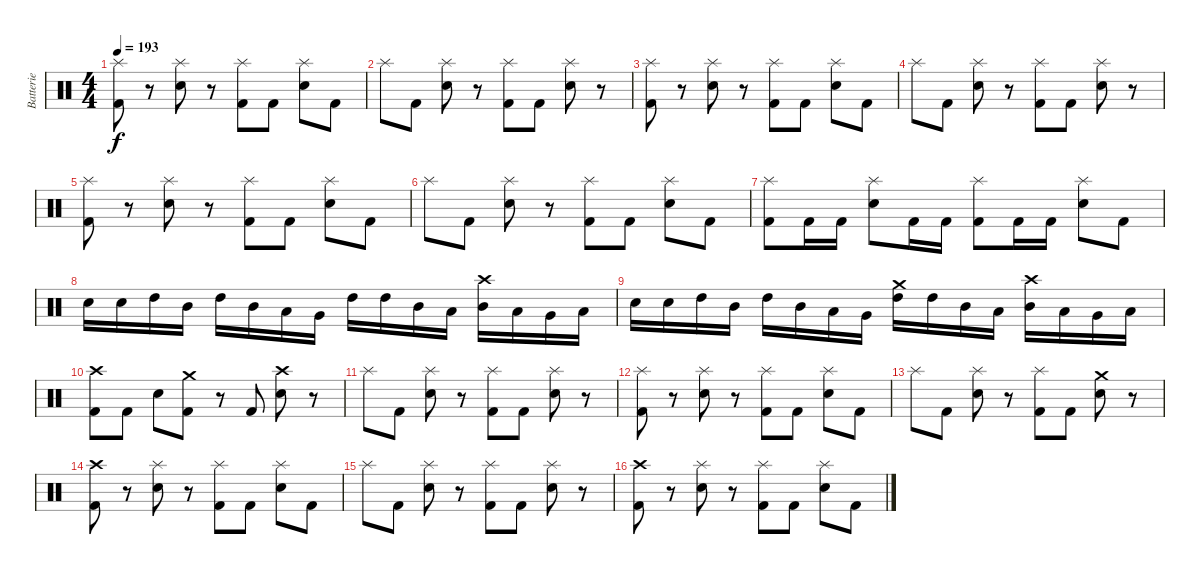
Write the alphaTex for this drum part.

\track ("Batterie" "Batterie") {instrument percussion}
\staff {score}
\articulation defaults
\ts (4 4)
\tempo 193
\clef neutral
\ks c
("Kick (hit) 2" "Splash (hit)").8{dy f} r.8 ("Electric Snare (hit)" "Splash (hit)").8 r.8 ("Kick (hit) 2" "Splash (hit)").8 "Kick (hit) 2".8 ("Electric Snare (hit)" "Splash (hit)").8 "Kick (hit) 2".8 |
"Splash (hit)".8 "Kick (hit) 2".8 ("Electric Snare (hit)" "Splash (hit)").8 r.8 ("Kick (hit) 2" "Splash (hit)").8 "Kick (hit) 2".8 ("Electric Snare (hit)" "Splash (hit)").8 r.8 |
("Kick (hit) 2" "Splash (hit)").8 r.8 ("Electric Snare (hit)" "Splash (hit)").8 r.8 ("Kick (hit) 2" "Splash (hit)").8 "Kick (hit) 2".8 ("Electric Snare (hit)" "Splash (hit)").8 "Kick (hit) 2".8 |
"Splash (hit)".8 "Kick (hit) 2".8 ("Electric Snare (hit)" "Splash (hit)").8 r.8 ("Kick (hit) 2" "Splash (hit)").8 "Kick (hit) 2".8 ("Electric Snare (hit)" "Splash (hit)").8 r.8 |
("Kick (hit) 2" "Splash (hit)").8 r.8 ("Electric Snare (hit)" "Splash (hit)").8 r.8 ("Kick (hit) 2" "Splash (hit)").8 "Kick (hit) 2".8 ("Electric Snare (hit)" "Splash (hit)").8 "Kick (hit) 2".8 |
"Splash (hit)".8 "Kick (hit) 2".8 ("Electric Snare (hit)" "Splash (hit)").8 r.8 ("Kick (hit) 2" "Splash (hit)").8 "Kick (hit) 2".8 ("Electric Snare (hit)" "Splash (hit)").8 "Kick (hit) 2".8 |
("Kick (hit) 2" "Splash (hit)").8 "Kick (hit) 2".16 "Kick (hit) 2".16 ("Electric Snare (hit)" "Splash (hit)").8 "Kick (hit) 2".16 "Kick (hit) 2".16 ("Kick (hit) 2" "Splash (hit)").8 "Kick (hit) 2".16 "Kick (hit) 2".16 ("Electric Snare (hit)" "Splash (hit)").8 "Kick (hit) 2".8 |
"Electric Snare (hit)".16 "Electric Snare (hit)".16 "High Tom (hit)".16 "Mid Tom (hit)".16 "High Tom (hit)".16 "Mid Tom (hit)".16 "Low Tom (hit)".16 "Very Low Tom (hit)".16 "High Tom (hit)".16 "High Tom (hit)".16 "Mid Tom (hit)".16 "Low Tom (hit)".16 ("Mid Tom (hit)" "Crash high (hit)").16 "Low Tom (hit)".16 "Very Low Tom (hit)".16 "Low Floor Tom (hit)".16 |
"Electric Snare (hit)".16 "Electric Snare (hit)".16 "High Tom (hit)".16 "Mid Tom (hit)".16 "High Tom (hit)".16 "Mid Tom (hit)".16 "Low Tom (hit)".16 "Very Low Tom (hit)".16 ("High Tom (hit)" "Crash medium (hit)").16 "High Tom (hit)".16 "Mid Tom (hit)".16 "Low Tom (hit)".16 ("Mid Tom (hit)" "Crash high (hit)").16 "Low Tom (hit)".16 "Very Low Tom (hit)".16 "Low Floor Tom (hit)".16 |
("Kick (hit) 2" "Crash high (hit)").8 "Kick (hit) 2".8 "Electric Snare (hit)".8 ("Kick (hit) 2" "Crash medium (hit)").8 r.8 "Kick (hit) 2".8 ("Electric Snare (hit)" "Crash high (hit)").8 r.8 |
"Splash (hit)".8 "Kick (hit) 2".8 ("Electric Snare (hit)" "Splash (hit)").8 r.8 ("Kick (hit) 2" "Splash (hit)").8 "Kick (hit) 2".8 ("Electric Snare (hit)" "Splash (hit)").8 r.8 |
("Kick (hit) 2" "Splash (hit)").8 r.8 ("Electric Snare (hit)" "Splash (hit)").8 r.8 ("Kick (hit) 2" "Splash (hit)").8 "Kick (hit) 2".8 ("Electric Snare (hit)" "Splash (hit)").8 "Kick (hit) 2".8 |
"Splash (hit)".8 "Kick (hit) 2".8 ("Electric Snare (hit)" "Splash (hit)").8 r.8 ("Kick (hit) 2" "Splash (hit)").8 "Kick (hit) 2".8 ("Electric Snare (hit)" "Crash medium (hit)").8 r.8 |
("Kick (hit) 2" "Crash high (hit)").8 r.8 ("Electric Snare (hit)" "Splash (hit)").8 r.8 ("Kick (hit) 2" "Splash (hit)").8 "Kick (hit) 2".8 ("Electric Snare (hit)" "Splash (hit)").8 "Kick (hit) 2".8 |
"Splash (hit)".8 "Kick (hit) 2".8 ("Electric Snare (hit)" "Splash (hit)").8 r.8 ("Kick (hit) 2" "Splash (hit)").8 "Kick (hit) 2".8 ("Electric Snare (hit)" "Splash (hit)").8 r.8 |
("Kick (hit) 2" "Crash high (hit)").8 r.8 ("Electric Snare (hit)" "Splash (hit)").8 r.8 ("Kick (hit) 2" "Splash (hit)").8 "Kick (hit) 2".8 ("Electric Snare (hit)" "Splash (hit)").8 "Kick (hit) 2".8
